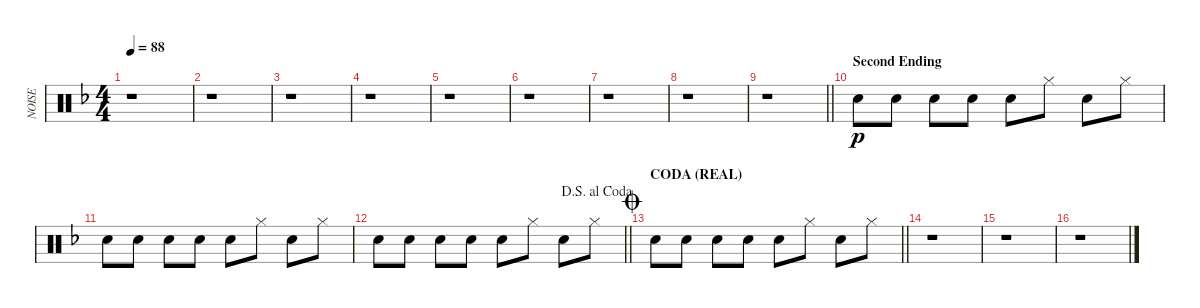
\track ("NOISE" "NOISE") {instrument percussion}
\staff {score}
\articulation defaults
\ts (4 4)
\tempo 88
\clef neutral
\ks dminor
r.1{dy p} |
r.1 |
r.1 |
r.1 |
r.1 |
r.1 |
r.1 |
r.1 |
\barLineRight lightlight
r.1 |
\section ("" "Second Ending")
"Snare (hit) 2".8 "Snare (hit) 2".8 "Snare (hit) 2".8 "Snare (hit) 2".8 "Snare (hit) 2".8 "Hi-Hat (closed)".8 "Snare (hit) 2".8 "Hi-Hat (closed)".8 |
"Snare (hit) 2".8 "Snare (hit) 2".8 "Snare (hit) 2".8 "Snare (hit) 2".8 "Snare (hit) 2".8 "Hi-Hat (closed)".8 "Snare (hit) 2".8 "Hi-Hat (closed)".8 |
\jump dalsegnoalcoda
\barLineRight lightlight "Snare (hit) 2".8 "Snare (hit) 2".8 "Snare (hit) 2".8 "Snare (hit) 2".8 "Snare (hit) 2".8 "Hi-Hat (closed)".8 "Snare (hit) 2".8 "Hi-Hat (closed)".8
|
\section ("" "CODA (REAL)")
\jump coda
\barLineRight lightlight "Snare (hit) 2".8 "Snare (hit) 2".8 "Snare (hit) 2".8 "Snare (hit) 2".8 "Snare (hit) 2".8 "Hi-Hat (closed)".8 "Snare (hit) 2".8 "Hi-Hat (closed)".8
|
r.1 |
r.1 |
r.1
